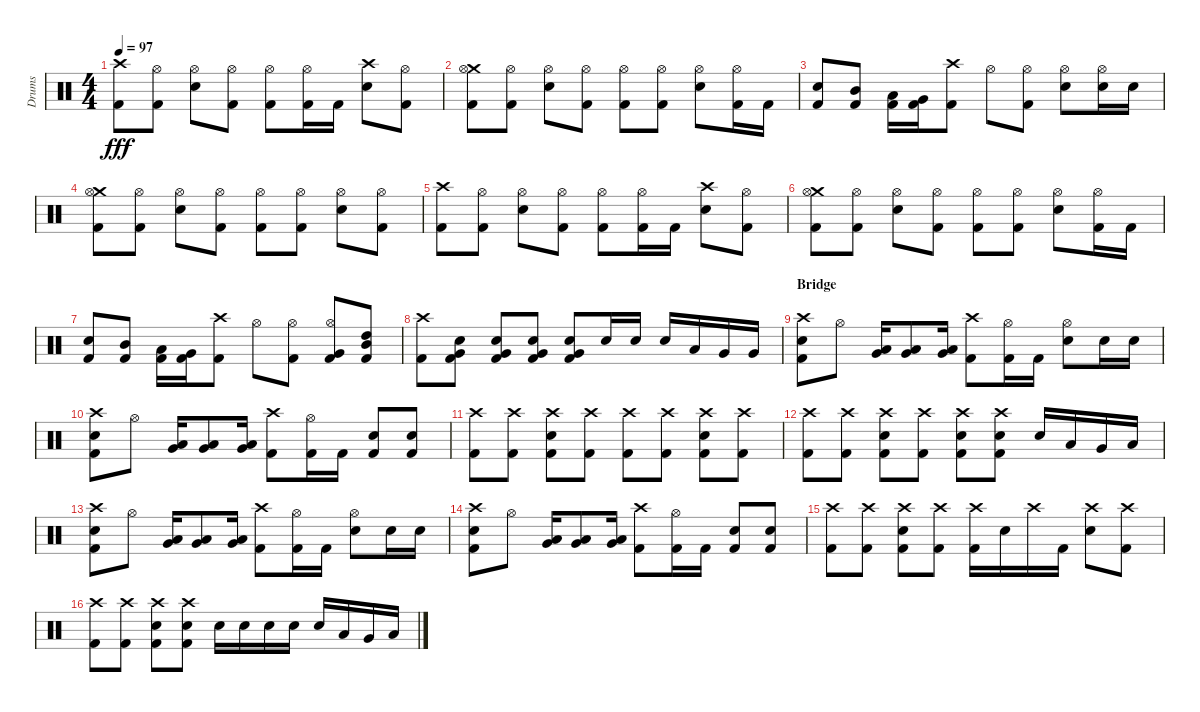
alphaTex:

\track ("Drums" "Drums") {instrument percussion}
\staff {score}
\articulation defaults
\ts (4 4)
\tempo 97
\clef neutral
\ks c
("Crash high (hit)" "Kick (hit) 2").8{dy fff} ("Hi-Hat (open)" "Kick (hit) 2").8 ("Hi-Hat (open)" "Electric Snare (hit)").8 ("Hi-Hat (open)" "Kick (hit) 2").8 ("Hi-Hat (open)" "Kick (hit) 2").8 ("Hi-Hat (open)" "Kick (hit) 2").16 "Kick (hit) 2".16 ("Crash high (hit)" "Electric Snare (hit)").8 ("Hi-Hat (open)" "Kick (hit) 2").8 |
("Crash medium (hit)" "Hi-Hat (open)" "Kick (hit) 2").8 ("Hi-Hat (open)" "Kick (hit) 2").8 ("Hi-Hat (open)" "Electric Snare (hit)").8 ("Hi-Hat (open)" "Kick (hit) 2").8 ("Hi-Hat (open)" "Kick (hit) 2").8 ("Hi-Hat (open)" "Kick (hit) 2").8 ("Hi-Hat (open)" "Electric Snare (hit)").8 ("Hi-Hat (open)" "Kick (hit) 2").16 "Kick (hit) 2".16 |
("Electric Snare (hit)" "Kick (hit) 2").8 ("Mid Tom (hit)" "Kick (hit) 2").8 ("Low Tom (hit)" "Kick (hit) 2").16 ("Very Low Tom (hit)" "Kick (hit) 2").16 ("Crash high (hit)" "Kick (hit) 2").8 "Hi-Hat (open)".8 ("Hi-Hat (open)" "Kick (hit) 2").8 ("Hi-Hat (open)" "Electric Snare (hit)").8 ("Hi-Hat (open)" "Electric Snare (hit)").16 "Electric Snare (hit)".16 |
("Crash medium (hit)" "Hi-Hat (open)" "Kick (hit) 2").8 ("Hi-Hat (open)" "Kick (hit) 2").8 ("Hi-Hat (open)" "Electric Snare (hit)").8 ("Hi-Hat (open)" "Kick (hit) 2").8 ("Hi-Hat (open)" "Kick (hit) 2").8 ("Hi-Hat (open)" "Kick (hit) 2").8 ("Hi-Hat (open)" "Electric Snare (hit)").8 ("Hi-Hat (open)" "Kick (hit) 2").8 |
("Crash high (hit)" "Kick (hit) 2").8 ("Hi-Hat (open)" "Kick (hit) 2").8 ("Hi-Hat (open)" "Electric Snare (hit)").8 ("Hi-Hat (open)" "Kick (hit) 2").8 ("Hi-Hat (open)" "Kick (hit) 2").8 ("Hi-Hat (open)" "Kick (hit) 2").16 "Kick (hit) 2".16 ("Crash high (hit)" "Electric Snare (hit)").8 ("Hi-Hat (open)" "Kick (hit) 2").8 |
("Crash medium (hit)" "Hi-Hat (open)" "Kick (hit) 2").8 ("Hi-Hat (open)" "Kick (hit) 2").8 ("Hi-Hat (open)" "Electric Snare (hit)").8 ("Hi-Hat (open)" "Kick (hit) 2").8 ("Hi-Hat (open)" "Kick (hit) 2").8 ("Hi-Hat (open)" "Kick (hit) 2").8 ("Hi-Hat (open)" "Electric Snare (hit)").8 ("Hi-Hat (open)" "Kick (hit) 2").16 "Kick (hit) 2".16 |
("Electric Snare (hit)" "Kick (hit) 2").8 ("Mid Tom (hit)" "Kick (hit) 2").8 ("Low Tom (hit)" "Kick (hit) 2").16 ("Very Low Tom (hit)" "Kick (hit) 2").16 ("Crash high (hit)" "Kick (hit) 2").8 "Hi-Hat (open)".8 ("Hi-Hat (open)" "Kick (hit) 2").8 ("Hi-Hat (open)" "Very Low Tom (hit)" "Kick (hit) 2").8 ("Mid Tom (hit)" "High Tom (hit)" "Kick (hit) 2").8 |
("Crash high (hit)" "Kick (hit) 2").8 ("Electric Snare (hit)" "Very Low Tom (hit)" "Kick (hit) 2").8 ("Electric Snare (hit)" "Very Low Tom (hit)" "Kick (hit) 2").8 ("Electric Snare (hit)" "Very Low Tom (hit)" "Kick (hit) 2").8 ("Electric Snare (hit)" "Very Low Tom (hit)" "Kick (hit) 2").8 "Electric Snare (hit)".16 "Electric Snare (hit)".16 "Electric Snare (hit)".16 "Low Tom (hit)".16 "Very Low Tom (hit)".16 "Very Low Tom (hit)".16 |
\section ("" "Bridge")
("Crash high (hit)" "Electric Snare (hit)" "Kick (hit) 2").8 "Hi-Hat (open)".8 ("Very Low Tom (hit)" "Low Floor Tom (hit)").16 ("Very Low Tom (hit)" "Low Floor Tom (hit)").8 ("Very Low Tom (hit)" "Low Floor Tom (hit)").16 ("Crash high (hit)" "Kick (hit) 2").8 ("Hi-Hat (open)" "Kick (hit) 2").16 "Kick (hit) 2".16 ("Hi-Hat (open)" "Electric Snare (hit)").8 "Electric Snare (hit)".16 "Electric Snare (hit)".16 |
("Crash high (hit)" "Electric Snare (hit)" "Kick (hit) 2").8 "Hi-Hat (open)".8 ("Very Low Tom (hit)" "Low Floor Tom (hit)").16 ("Very Low Tom (hit)" "Low Floor Tom (hit)").8 ("Very Low Tom (hit)" "Low Floor Tom (hit)").16 ("Crash high (hit)" "Kick (hit) 2").8 ("Hi-Hat (open)" "Kick (hit) 2").16 "Kick (hit) 2".16 ("Electric Snare (hit)" "Kick (hit) 2").8 ("Electric Snare (hit)" "Kick (hit) 2").8 |
("Crash high (hit)" "Kick (hit) 2").8 ("Crash high (hit)" "Kick (hit) 2").8 ("Crash high (hit)" "Electric Snare (hit)" "Kick (hit) 2").8 ("Crash high (hit)" "Kick (hit) 2").8 ("Crash high (hit)" "Kick (hit) 2").8 ("Crash high (hit)" "Kick (hit) 2").8 ("Crash high (hit)" "Electric Snare (hit)" "Kick (hit) 2").8 ("Crash high (hit)" "Kick (hit) 2").8 |
("Crash high (hit)" "Kick (hit) 2").8 ("Crash high (hit)" "Kick (hit) 2").8 ("Crash high (hit)" "Electric Snare (hit)" "Kick (hit) 2").8 ("Crash high (hit)" "Kick (hit) 2").8 ("Crash high (hit)" "Electric Snare (hit)" "Kick (hit) 2").8 ("Crash high (hit)" "Electric Snare (hit)" "Kick (hit) 2").8 "Electric Snare (hit)".16 "Low Tom (hit)".16 "Very Low Tom (hit)".16 "Low Floor Tom (hit)".16 |
("Crash high (hit)" "Electric Snare (hit)" "Kick (hit) 2").8 "Hi-Hat (open)".8 ("Very Low Tom (hit)" "Low Floor Tom (hit)").16 ("Very Low Tom (hit)" "Low Floor Tom (hit)").8 ("Very Low Tom (hit)" "Low Floor Tom (hit)").16 ("Crash high (hit)" "Kick (hit) 2").8 ("Hi-Hat (open)" "Kick (hit) 2").16 "Kick (hit) 2".16 ("Hi-Hat (open)" "Electric Snare (hit)").8 "Electric Snare (hit)".16 "Electric Snare (hit)".16 |
("Crash high (hit)" "Electric Snare (hit)" "Kick (hit) 2").8 "Hi-Hat (open)".8 ("Very Low Tom (hit)" "Low Floor Tom (hit)").16 ("Very Low Tom (hit)" "Low Floor Tom (hit)").8 ("Very Low Tom (hit)" "Low Floor Tom (hit)").16 ("Crash high (hit)" "Kick (hit) 2").8 ("Hi-Hat (open)" "Kick (hit) 2").16 "Kick (hit) 2".16 ("Electric Snare (hit)" "Kick (hit) 2").8 ("Electric Snare (hit)" "Kick (hit) 2").8 |
("Crash high (hit)" "Kick (hit) 2").8 ("Crash high (hit)" "Kick (hit) 2").8 ("Crash high (hit)" "Electric Snare (hit)" "Kick (hit) 2").8 ("Crash high (hit)" "Kick (hit) 2").8 ("Crash high (hit)" "Kick (hit) 2").16 "Electric Snare (hit)".16 "Crash high (hit)".16 "Kick (hit) 2".16 ("Crash high (hit)" "Electric Snare (hit)").8 ("Crash high (hit)" "Kick (hit) 2").8 |
("Crash high (hit)" "Kick (hit) 2").8 ("Crash high (hit)" "Kick (hit) 2").8 ("Crash high (hit)" "Electric Snare (hit)" "Kick (hit) 2").8 ("Crash high (hit)" "Electric Snare (hit)" "Kick (hit) 2").8 "Electric Snare (hit)".16 "Electric Snare (hit)".16 "Electric Snare (hit)".16 "Electric Snare (hit)".16 "Electric Snare (hit)".16 "Low Tom (hit)".16 "Very Low Tom (hit)".16 "Low Floor Tom (hit)".16
